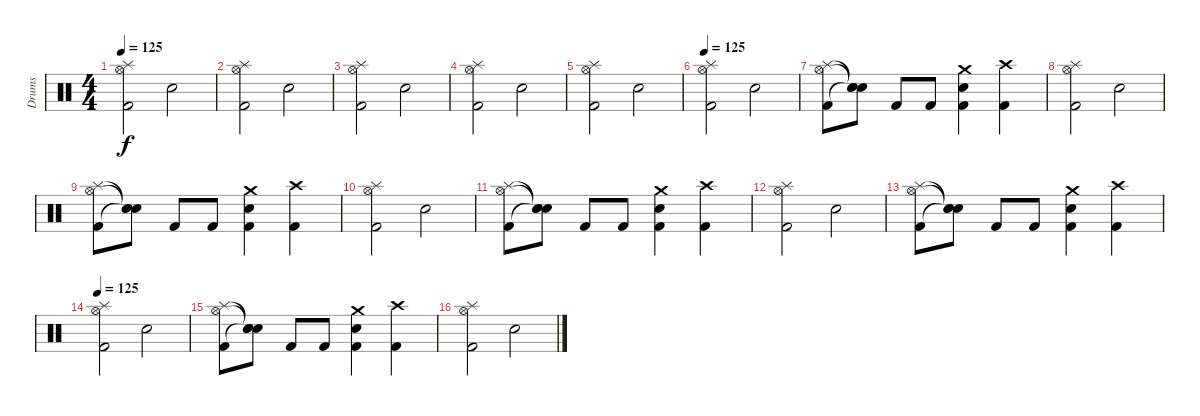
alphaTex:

\track ("Drums" "Drums") {instrument percussion}
\staff {score}
\articulation defaults
\ts (4 4)
\tempo 125
\clef neutral
\ks c
("Kick (hit) 2" "Splash (hit)" "Hi-Hat (open)").2{dy f} "Snare (hit) 2".2 |
("Kick (hit) 2" "Splash (hit)" "Hi-Hat (open)").2 "Snare (hit) 2".2 |
("Kick (hit) 2" "Splash (hit)" "Hi-Hat (open)").2 "Snare (hit) 2".2 |
("Kick (hit) 2" "Splash (hit)" "Hi-Hat (open)").2 "Snare (hit) 2".2 |
("Kick (hit) 2" "Splash (hit)" "Hi-Hat (open)").2 "Snare (hit) 2".2 |
\tempo 125
("Kick (hit) 2" "Splash (hit)" "Hi-Hat (open)").2 "Snare (hit) 2".2 |
("Kick (hit) 2" "Splash (hit)" "Hi-Hat (open)").8 ("Snare (hit)"{t} "Snare (hit)"{t} "Snare (hit) 2"{t}).8 "Kick (hit) 2".8 "Kick (hit) 2".8 ("Snare (hit) 2" "Crash medium (hit)" "Kick (hit) 2").4 ("Crash high (hit)" "Kick (hit) 2").4 |
("Kick (hit) 2" "Splash (hit)" "Hi-Hat (open)").2 "Snare (hit) 2".2 |
("Kick (hit) 2" "Splash (hit)" "Hi-Hat (open)").8 ("Snare (hit)"{t} "Snare (hit)"{t} "Snare (hit) 2"{t}).8 "Kick (hit) 2".8 "Kick (hit) 2".8 ("Snare (hit) 2" "Crash medium (hit)" "Kick (hit) 2").4 ("Crash high (hit)" "Kick (hit) 2").4 |
("Kick (hit) 2" "Splash (hit)" "Hi-Hat (open)").2 "Snare (hit) 2".2 |
("Kick (hit) 2" "Splash (hit)" "Hi-Hat (open)").8 ("Snare (hit)"{t} "Snare (hit)"{t} "Snare (hit) 2"{t}).8 "Kick (hit) 2".8 "Kick (hit) 2".8 ("Snare (hit) 2" "Crash medium (hit)" "Kick (hit) 2").4 ("Crash high (hit)" "Kick (hit) 2").4 |
("Kick (hit) 2" "Splash (hit)" "Hi-Hat (open)").2 "Snare (hit) 2".2 |
("Kick (hit) 2" "Splash (hit)" "Hi-Hat (open)").8 ("Snare (hit)"{t} "Snare (hit)"{t} "Snare (hit) 2"{t}).8 "Kick (hit) 2".8 "Kick (hit) 2".8 ("Snare (hit) 2" "Crash medium (hit)" "Kick (hit) 2").4 ("Crash high (hit)" "Kick (hit) 2").4 |
\tempo 125
("Kick (hit) 2" "Splash (hit)" "Hi-Hat (open)").2 "Snare (hit) 2".2 |
("Kick (hit) 2" "Splash (hit)" "Hi-Hat (open)").8 ("Snare (hit)"{t} "Snare (hit)"{t} "Snare (hit) 2"{t}).8 "Kick (hit) 2".8 "Kick (hit) 2".8 ("Snare (hit) 2" "Crash medium (hit)" "Kick (hit) 2").4 ("Crash high (hit)" "Kick (hit) 2").4 |
("Kick (hit) 2" "Splash (hit)" "Hi-Hat (open)").2 "Snare (hit) 2".2
